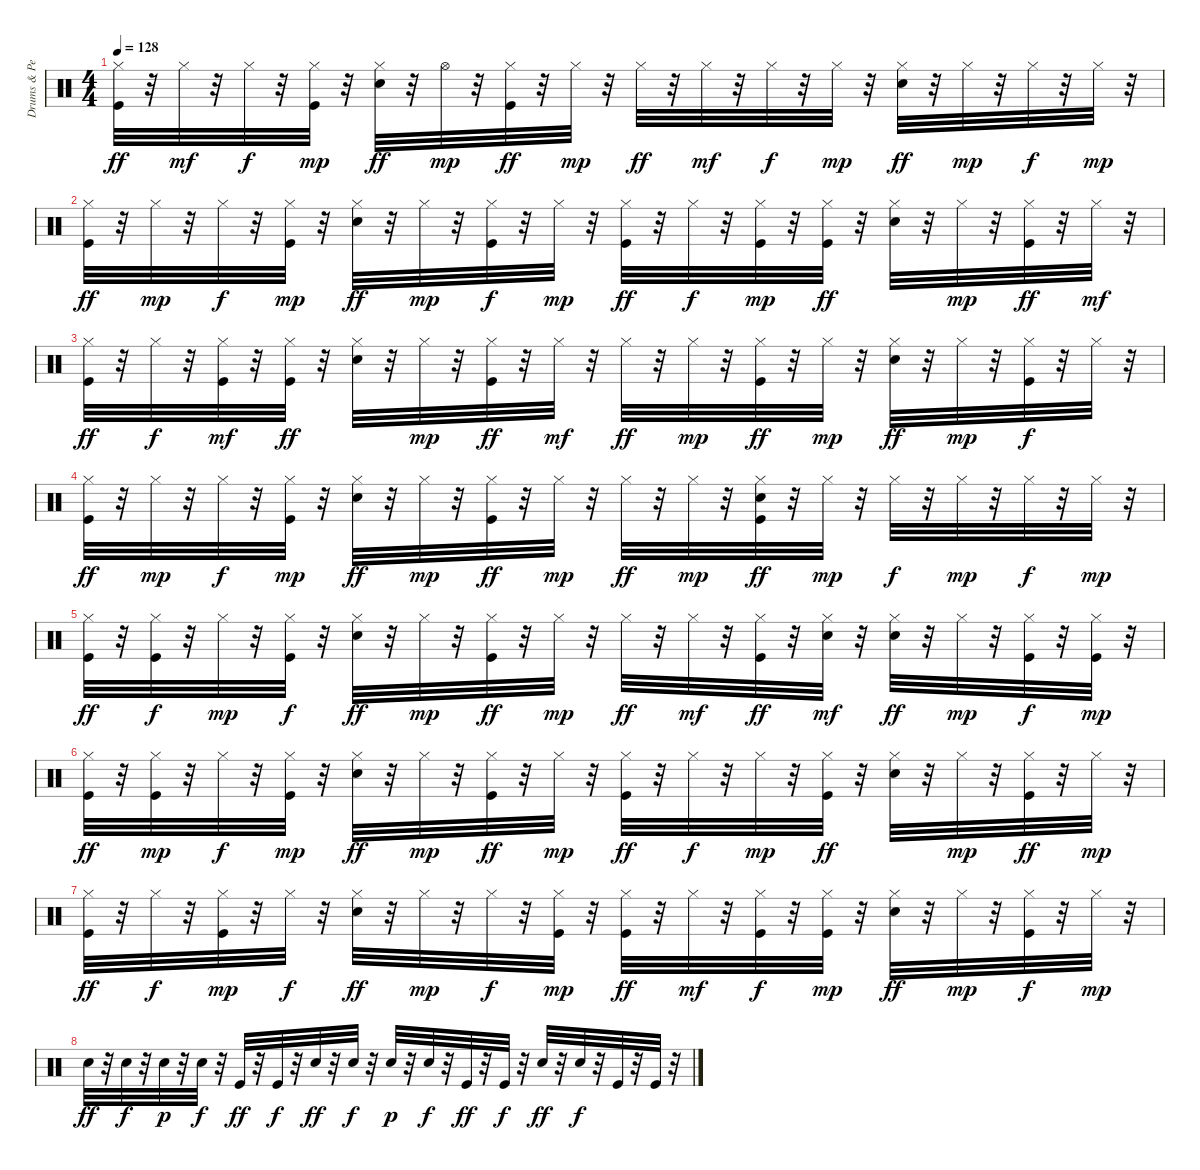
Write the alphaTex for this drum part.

\track ("Drums & Percussion" "Drums & Pe") {instrument percussion}
\staff {score}
\articulation defaults
\ts (4 4)
\tempo 128
\clef neutral
\ks c
("Kick (hit)" "Hi-Hat (closed)").32{dy ff} r.32 "Hi-Hat (closed)".32{dy mf} r.32 "Hi-Hat (closed)".32{dy f} r.32 ("Kick (hit)" "Hi-Hat (closed)").32{dy mp} r.32 ("Hi-Hat (closed)" "Electric Snare (hit)").32{dy ff} r.32 "Hi-Hat (open)".32{dy mp} r.32 ("Kick (hit)" "Hi-Hat (closed)").32{dy ff} r.32 "Hi-Hat (closed)".32{dy mp} r.32 "Hi-Hat (closed)".32{dy ff} r.32 "Hi-Hat (closed)".32{dy mf} r.32 "Hi-Hat (closed)".32{dy f} r.32 "Hi-Hat (closed)".32{dy mp} r.32 ("Hi-Hat (closed)" "Electric Snare (hit)").32{dy ff} r.32 "Hi-Hat (closed)".32{dy mp} r.32 "Hi-Hat (closed)".32{dy f} r.32 "Hi-Hat (closed)".32{dy mp} r.32 |
("Kick (hit)" "Hi-Hat (closed)").32{dy ff} r.32 "Hi-Hat (closed)".32{dy mp} r.32 "Hi-Hat (closed)".32{dy f} r.32 ("Kick (hit)" "Hi-Hat (closed)").32{dy mp} r.32 ("Hi-Hat (closed)" "Electric Snare (hit)").32{dy ff} r.32 "Hi-Hat (closed)".32{dy mp} r.32 ("Kick (hit)" "Hi-Hat (closed)").32{dy f} r.32 "Hi-Hat (closed)".32{dy mp} r.32 ("Kick (hit)" "Hi-Hat (closed)").32{dy ff} r.32 "Hi-Hat (closed)".32{dy f} r.32 ("Kick (hit)" "Hi-Hat (closed)").32{dy mp} r.32 ("Kick (hit)" "Hi-Hat (closed)").32{dy ff} r.32 ("Hi-Hat (closed)" "Electric Snare (hit)").32 r.32 "Hi-Hat (closed)".32{dy mp} r.32 ("Kick (hit)" "Hi-Hat (closed)").32{dy ff} r.32 "Hi-Hat (closed)".32{dy mf} r.32 |
("Kick (hit)" "Hi-Hat (closed)").32{dy ff} r.32 "Hi-Hat (closed)".32{dy f} r.32 ("Kick (hit)" "Hi-Hat (closed)").32{dy mf} r.32 ("Kick (hit)" "Hi-Hat (closed)").32{dy ff} r.32 ("Hi-Hat (closed)" "Electric Snare (hit)").32 r.32 "Hi-Hat (closed)".32{dy mp} r.32 ("Kick (hit)" "Hi-Hat (closed)").32{dy ff} r.32 "Hi-Hat (closed)".32{dy mf} r.32 "Hi-Hat (closed)".32{dy ff} r.32 "Hi-Hat (closed)".32{dy mp} r.32 ("Kick (hit)" "Hi-Hat (closed)").32{dy ff} r.32 "Hi-Hat (closed)".32{dy mp} r.32 ("Hi-Hat (closed)" "Electric Snare (hit)").32{dy ff} r.32 "Hi-Hat (closed)".32{dy mp} r.32 ("Kick (hit)" "Hi-Hat (closed)").32{dy f} r.32 "Hi-Hat (closed)".32 r.32 |
("Kick (hit)" "Hi-Hat (closed)").32{dy ff} r.32 "Hi-Hat (closed)".32{dy mp} r.32 "Hi-Hat (closed)".32{dy f} r.32 ("Kick (hit)" "Hi-Hat (closed)").32{dy mp} r.32 ("Hi-Hat (closed)" "Electric Snare (hit)").32{dy ff} r.32 "Hi-Hat (closed)".32{dy mp} r.32 ("Kick (hit)" "Hi-Hat (closed)").32{dy ff} r.32 "Hi-Hat (closed)".32{dy mp} r.32 "Hi-Hat (closed)".32{dy ff} r.32 "Hi-Hat (closed)".32{dy mp} r.32 ("Kick (hit)" "Hi-Hat (closed)" "Electric Snare (hit)").32{dy ff} r.32 "Hi-Hat (closed)".32{dy mp} r.32 "Hi-Hat (closed)".32{dy f} r.32 "Hi-Hat (closed)".32{dy mp} r.32 "Hi-Hat (closed)".32{dy f} r.32 "Hi-Hat (closed)".32{dy mp} r.32 |
("Kick (hit)" "Hi-Hat (closed)").32{dy ff} r.32 ("Kick (hit)" "Hi-Hat (closed)").32{dy f} r.32 "Hi-Hat (closed)".32{dy mp} r.32 ("Kick (hit)" "Hi-Hat (closed)").32{dy f} r.32 ("Hi-Hat (closed)" "Electric Snare (hit)").32{dy ff} r.32 "Hi-Hat (closed)".32{dy mp} r.32 ("Kick (hit)" "Hi-Hat (closed)").32{dy ff} r.32 "Hi-Hat (closed)".32{dy mp} r.32 "Hi-Hat (closed)".32{dy ff} r.32 "Hi-Hat (closed)".32{dy mf} r.32 ("Kick (hit)" "Hi-Hat (closed)").32{dy ff} r.32 ("Hi-Hat (closed)" "Electric Snare (hit)").32{dy mf} r.32 ("Hi-Hat (closed)" "Electric Snare (hit)").32{dy ff} r.32 "Hi-Hat (closed)".32{dy mp} r.32 ("Kick (hit)" "Hi-Hat (closed)").32{dy f} r.32 ("Kick (hit)" "Hi-Hat (closed)").32{dy mp} r.32 |
("Kick (hit)" "Hi-Hat (closed)").32{dy ff} r.32 ("Kick (hit)" "Hi-Hat (closed)").32{dy mp} r.32 "Hi-Hat (closed)".32{dy f} r.32 ("Kick (hit)" "Hi-Hat (closed)").32{dy mp} r.32 ("Hi-Hat (closed)" "Electric Snare (hit)").32{dy ff} r.32 "Hi-Hat (closed)".32{dy mp} r.32 ("Kick (hit)" "Hi-Hat (closed)").32{dy ff} r.32 "Hi-Hat (closed)".32{dy mp} r.32 ("Kick (hit)" "Hi-Hat (closed)").32{dy ff} r.32 "Hi-Hat (closed)".32{dy f} r.32 "Hi-Hat (closed)".32{dy mp} r.32 ("Kick (hit)" "Hi-Hat (closed)").32{dy ff} r.32 ("Hi-Hat (closed)" "Electric Snare (hit)").32 r.32 "Hi-Hat (closed)".32{dy mp} r.32 ("Kick (hit)" "Hi-Hat (closed)").32{dy ff} r.32 "Hi-Hat (closed)".32{dy mp} r.32 |
("Kick (hit)" "Hi-Hat (closed)").32{dy ff} r.32 "Hi-Hat (closed)".32{dy f} r.32 ("Kick (hit)" "Hi-Hat (closed)").32{dy mp} r.32 "Hi-Hat (closed)".32{dy f} r.32 ("Hi-Hat (closed)" "Electric Snare (hit)").32{dy ff} r.32 "Hi-Hat (closed)".32{dy mp} r.32 "Hi-Hat (closed)".32{dy f} r.32 ("Kick (hit)" "Hi-Hat (closed)").32{dy mp} r.32 ("Kick (hit)" "Hi-Hat (closed)").32{dy ff} r.32 "Hi-Hat (closed)".32{dy mf} r.32 ("Kick (hit)" "Hi-Hat (closed)").32{dy f} r.32 ("Kick (hit)" "Hi-Hat (closed)").32{dy mp} r.32 ("Hi-Hat (closed)" "Electric Snare (hit)").32{dy ff} r.32 "Hi-Hat (closed)".32{dy mp} r.32 ("Kick (hit)" "Hi-Hat (closed)").32{dy f} r.32 "Hi-Hat (closed)".32{dy mp} r.32 |
"Electric Snare (hit)".32{dy ff} r.32 "Electric Snare (hit)".32{dy f} r.32 "Electric Snare (hit)".32{dy p} r.32 "Electric Snare (hit)".32{dy f} r.32 "Kick (hit)".32{dy ff} r.32 "Kick (hit)".32{dy f} r.32 "Electric Snare (hit)".32{dy ff} r.32 "Electric Snare (hit)".32{dy f} r.32 "Electric Snare (hit)".32{dy p} r.32 "Electric Snare (hit)".32{dy f} r.32 "Kick (hit)".32{dy ff} r.32 "Kick (hit)".32{dy f} r.32 "Electric Snare (hit)".32{dy ff} r.32 "Electric Snare (hit)".32{dy f} r.32 "Kick (hit)".32 r.32 "Kick (hit)".32 r.32
